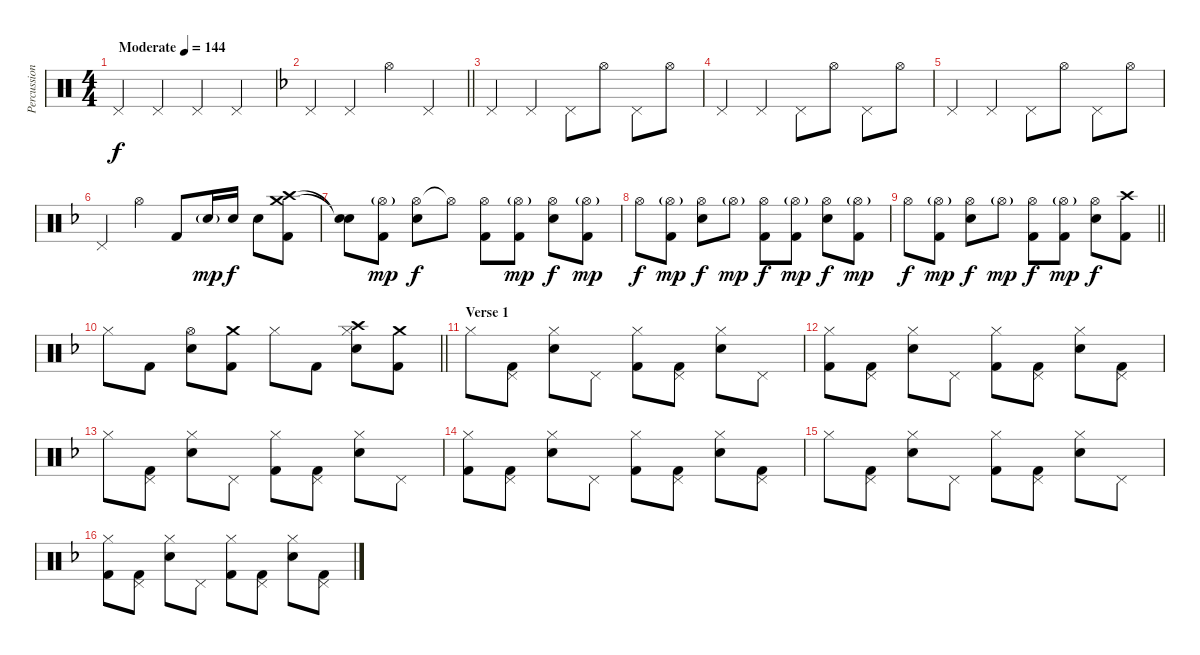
\track ("Percussion" "Percussion") {instrument percussion}
\staff {score}
\articulation defaults
\ts (4 4)
\tempo (144 "Moderate")
\clef neutral
\ks c "Pedal Hi-Hat (hit)".4{dy f} "Pedal Hi-Hat (hit)".4 "Pedal Hi-Hat (hit)".4 "Pedal Hi-Hat (hit)".4
|
\barLineRight lightlight
\ks f "Pedal Hi-Hat (hit)".4 "Pedal Hi-Hat (hit)".4 "Hi-Hat (open)".4 "Pedal Hi-Hat (hit)".4
|
"Pedal Hi-Hat (hit)".4 "Pedal Hi-Hat (hit)".4 "Pedal Hi-Hat (hit)".8 "Hi-Hat (open)".8 "Pedal Hi-Hat (hit)".8 "Hi-Hat (open)".8 |
"Pedal Hi-Hat (hit)".4 "Pedal Hi-Hat (hit)".4 "Pedal Hi-Hat (hit)".8 "Hi-Hat (open)".8 "Pedal Hi-Hat (hit)".8 "Hi-Hat (open)".8 |
"Pedal Hi-Hat (hit)".4 "Pedal Hi-Hat (hit)".4 "Pedal Hi-Hat (hit)".8 "Hi-Hat (open)".8 "Pedal Hi-Hat (hit)".8 "Hi-Hat (open)".8 |
"Pedal Hi-Hat (hit)".4 "Hi-Hat (open)".4 "Kick (hit) 2".8 "Electric Snare (hit)"{g}.16{dy mp} "Electric Snare (hit)".16{dy f} "Electric Snare (hit)".8 ("Crash medium (hit)" "Crash high (hit)" "Kick (hit) 2").8 |
("Snare (hit)"{t} "Snare (hit)"{t}).8 ("Hi-Hat (open)"{g} "Kick (hit) 2").8{dy mp} ("Hi-Hat (open)" "Electric Snare (hit)").8{dy f} "Hi-Hat (open)"{t}.8 ("Hi-Hat (open)" "Kick (hit) 2").8 ("Hi-Hat (open)"{g} "Kick (hit) 2").8{dy mp} ("Hi-Hat (open)" "Electric Snare (hit)").8{dy f} ("Hi-Hat (open)"{g} "Kick (hit) 2").8{dy mp} |
"Hi-Hat (open)".8{dy f} ("Hi-Hat (open)"{g} "Kick (hit) 2").8{dy mp} ("Hi-Hat (open)" "Electric Snare (hit)").8{dy f} "Hi-Hat (open)"{g}.8{dy mp} ("Hi-Hat (open)" "Kick (hit) 2").8{dy f} ("Hi-Hat (open)"{g} "Kick (hit) 2").8{dy mp} ("Hi-Hat (open)" "Electric Snare (hit)").8{dy f} ("Hi-Hat (open)"{g} "Kick (hit) 2").8{dy mp} |
\barLineRight lightlight "Hi-Hat (open)".8{dy f}
("Hi-Hat (open)"{g} "Kick (hit) 2").8{dy mp} ("Hi-Hat (open)" "Electric Snare (hit)").8{dy f} "Hi-Hat (open)"{g}.8{dy mp} ("Hi-Hat (open)" "Kick (hit) 2").8{dy f} ("Hi-Hat (open)"{g} "Kick (hit) 2").8{dy mp} ("Hi-Hat (open)" "Electric Snare (hit)").8{dy f} ("Crash high (hit)" "Kick (hit) 2").8 |
\section ("" "")
\barLineRight lightlight "Hi-Hat (closed)".8 "Kick (hit) 2".8
("Hi-Hat (open)" "Electric Snare (hit)").8 ("Crash medium (hit)" "Kick (hit) 2").8 "Hi-Hat (closed)".8 "Kick (hit) 2".8 ("Crash high (hit)" "Hi-Hat (closed)" "Electric Snare (hit)").8 ("Crash medium (hit)" "Kick (hit) 2").8 |
\section ("" "Verse 1")
"Hi-Hat (closed)".8 ("Pedal Hi-Hat (hit)" "Kick (hit) 2").8 ("Electric Snare (hit)" "Hi-Hat (closed)").8 "Pedal Hi-Hat (hit)".8 ("Hi-Hat (closed)" "Kick (hit) 2").8 ("Pedal Hi-Hat (hit)" "Kick (hit) 2").8 ("Electric Snare (hit)" "Hi-Hat (closed)").8 "Pedal Hi-Hat (hit)".8 |
("Hi-Hat (closed)" "Kick (hit) 2").8 ("Pedal Hi-Hat (hit)" "Kick (hit) 2").8 ("Electric Snare (hit)" "Hi-Hat (closed)").8 "Pedal Hi-Hat (hit)".8 ("Hi-Hat (closed)" "Kick (hit) 2").8 ("Pedal Hi-Hat (hit)" "Kick (hit) 2").8 ("Electric Snare (hit)" "Hi-Hat (closed)").8 ("Pedal Hi-Hat (hit)" "Kick (hit) 2").8 |
"Hi-Hat (closed)".8 ("Pedal Hi-Hat (hit)" "Kick (hit) 2").8 ("Electric Snare (hit)" "Hi-Hat (closed)").8 "Pedal Hi-Hat (hit)".8 ("Hi-Hat (closed)" "Kick (hit) 2").8 ("Pedal Hi-Hat (hit)" "Kick (hit) 2").8 ("Electric Snare (hit)" "Hi-Hat (closed)").8 "Pedal Hi-Hat (hit)".8 |
("Hi-Hat (closed)" "Kick (hit) 2").8 ("Pedal Hi-Hat (hit)" "Kick (hit) 2").8 ("Electric Snare (hit)" "Hi-Hat (closed)").8 "Pedal Hi-Hat (hit)".8 ("Hi-Hat (closed)" "Kick (hit) 2").8 ("Pedal Hi-Hat (hit)" "Kick (hit) 2").8 ("Electric Snare (hit)" "Hi-Hat (closed)").8 ("Pedal Hi-Hat (hit)" "Kick (hit) 2").8 |
"Hi-Hat (closed)".8 ("Pedal Hi-Hat (hit)" "Kick (hit) 2").8 ("Electric Snare (hit)" "Hi-Hat (closed)").8 "Pedal Hi-Hat (hit)".8 ("Hi-Hat (closed)" "Kick (hit) 2").8 ("Pedal Hi-Hat (hit)" "Kick (hit) 2").8 ("Electric Snare (hit)" "Hi-Hat (closed)").8 "Pedal Hi-Hat (hit)".8 |
("Hi-Hat (closed)" "Kick (hit) 2").8 ("Pedal Hi-Hat (hit)" "Kick (hit) 2").8 ("Electric Snare (hit)" "Hi-Hat (closed)").8 "Pedal Hi-Hat (hit)".8 ("Hi-Hat (closed)" "Kick (hit) 2").8 ("Pedal Hi-Hat (hit)" "Kick (hit) 2").8 ("Electric Snare (hit)" "Hi-Hat (closed)").8 ("Pedal Hi-Hat (hit)" "Kick (hit) 2").8
